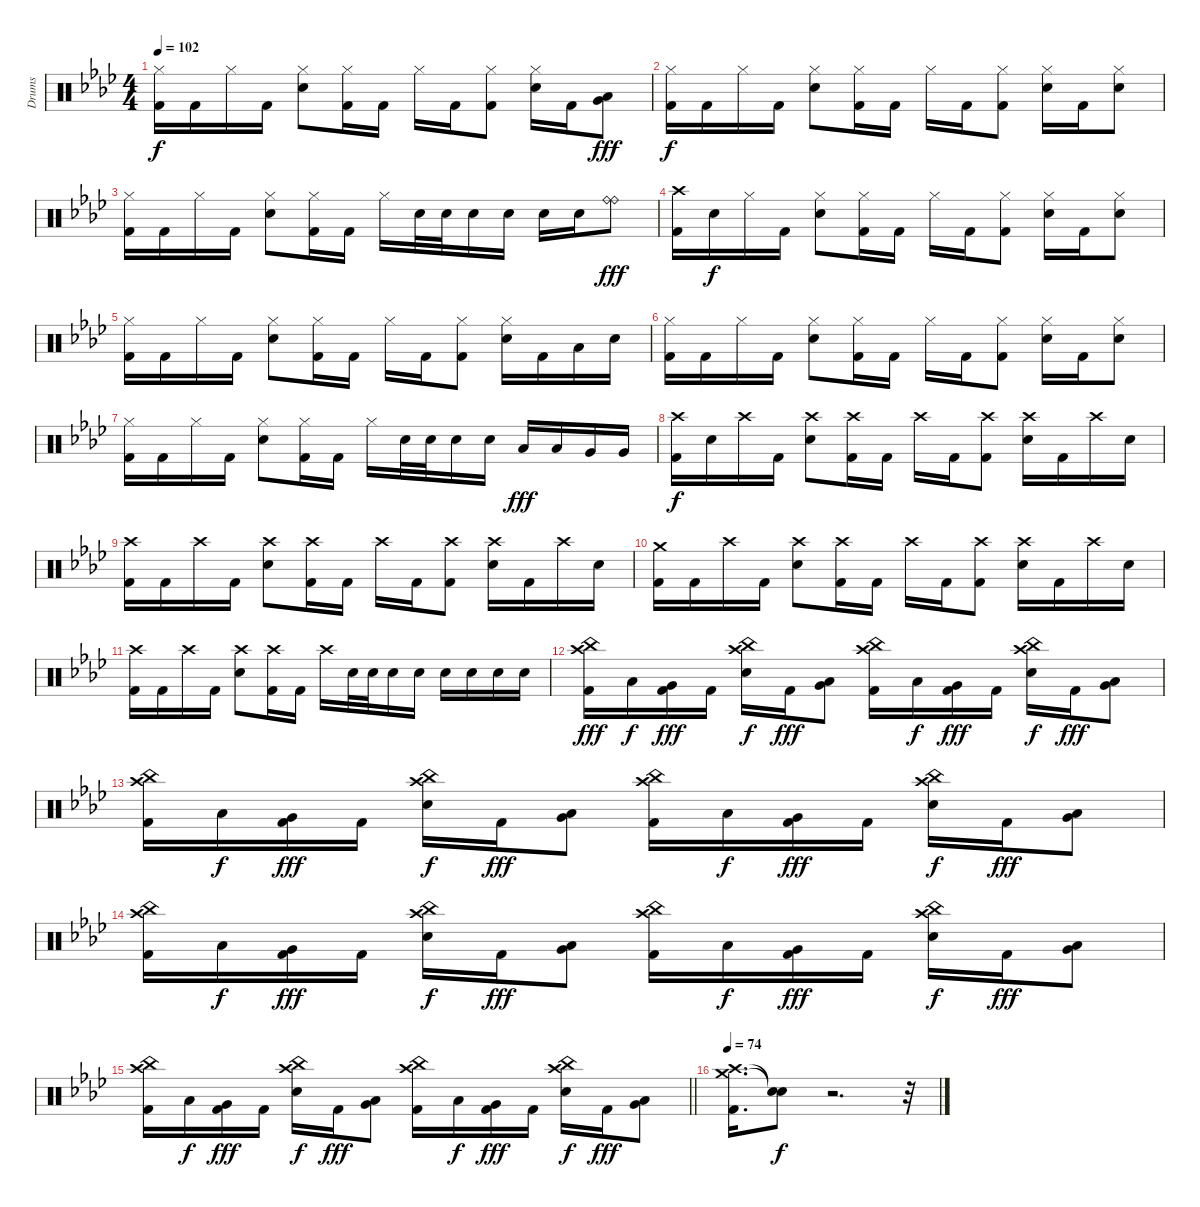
\track ("Drums" "Drums") {instrument percussion}
\staff {score}
\articulation defaults
\ts (4 4)
\tempo 102
\clef neutral
\ks fminor
("Hi-Hat (closed)" "Kick (hit) 2").16{dy f} "Kick (hit) 2".16 "Hi-Hat (closed)".16 "Kick (hit) 2".16 ("Hi-Hat (closed)" "Snare (hit) 2").8 ("Hi-Hat (closed)" "Kick (hit) 2").16 "Kick (hit) 2".16 "Hi-Hat (closed)".16 "Kick (hit) 2".16 ("Hi-Hat (closed)" "Kick (hit) 2").8 ("Hi-Hat (closed)" "Snare (hit) 2").16 "Kick (hit) 2".16 ("Low Tom (hit)" "Very Low Tom (hit)").8{dy fff} |
("Hi-Hat (closed)" "Kick (hit) 2").16{dy f} "Kick (hit) 2".16 "Hi-Hat (closed)".16 "Kick (hit) 2".16 ("Hi-Hat (closed)" "Snare (hit) 2").8 ("Hi-Hat (closed)" "Kick (hit) 2").16 "Kick (hit) 2".16 "Hi-Hat (closed)".16 "Kick (hit) 2".16 ("Hi-Hat (closed)" "Kick (hit) 2").8 ("Hi-Hat (closed)" "Snare (hit) 2").16 "Kick (hit) 2".16 ("Hi-Hat (closed)" "Snare (hit) 2").8 |
("Hi-Hat (closed)" "Kick (hit) 2").16 "Kick (hit) 2".16 "Hi-Hat (closed)".16 "Kick (hit) 2".16 ("Hi-Hat (closed)" "Snare (hit) 2").8 ("Hi-Hat (closed)" "Kick (hit) 2").16 "Kick (hit) 2".16 "Hi-Hat (closed)".16 "Snare (hit) 2".32 "Snare (hit) 2".32 "Snare (hit) 2".16 "Snare (hit) 2".16 "Snare (hit) 2".16 "Snare (hit) 2".16 ("Ride (bell)" "Ride (bell)").8{dy fff} |
("Crash high (hit)" "Kick (hit) 2").16 "Snare (hit) 2".16{dy f} "Hi-Hat (closed)".16 "Kick (hit) 2".16 ("Hi-Hat (closed)" "Snare (hit) 2").8 ("Hi-Hat (closed)" "Kick (hit) 2").16 "Kick (hit) 2".16 "Hi-Hat (closed)".16 "Kick (hit) 2".16 ("Hi-Hat (closed)" "Kick (hit) 2").8 ("Hi-Hat (closed)" "Snare (hit) 2").16 "Kick (hit) 2".16 ("Hi-Hat (closed)" "Snare (hit) 2").8 |
("Hi-Hat (closed)" "Kick (hit) 2").16 "Kick (hit) 2".16 "Hi-Hat (closed)".16 "Kick (hit) 2".16 ("Hi-Hat (closed)" "Snare (hit) 2").8 ("Hi-Hat (closed)" "Kick (hit) 2").16 "Kick (hit) 2".16 "Hi-Hat (closed)".16 "Kick (hit) 2".16 ("Hi-Hat (closed)" "Kick (hit) 2").8 ("Hi-Hat (closed)" "Snare (hit) 2").16 "Kick (hit) 2".16 "Low Tom (hit)".16 "Snare (hit) 2".16 |
("Hi-Hat (closed)" "Kick (hit) 2").16 "Kick (hit) 2".16 "Hi-Hat (closed)".16 "Kick (hit) 2".16 ("Hi-Hat (closed)" "Snare (hit) 2").8 ("Hi-Hat (closed)" "Kick (hit) 2").16 "Kick (hit) 2".16 "Hi-Hat (closed)".16 "Kick (hit) 2".16 ("Hi-Hat (closed)" "Kick (hit) 2").8 ("Hi-Hat (closed)" "Snare (hit) 2").16 "Kick (hit) 2".16 ("Hi-Hat (closed)" "Snare (hit) 2").8 |
("Hi-Hat (closed)" "Kick (hit) 2").16 "Kick (hit) 2".16 "Hi-Hat (closed)".16 "Kick (hit) 2".16 ("Hi-Hat (closed)" "Snare (hit) 2").8 ("Hi-Hat (closed)" "Kick (hit) 2").16 "Kick (hit) 2".16 "Hi-Hat (closed)".16 "Snare (hit) 2".32 "Snare (hit) 2".32 "Snare (hit) 2".16 "Snare (hit) 2".16 "Low Tom (hit)".16{dy fff} "Low Tom (hit)".16 "Very Low Tom (hit)".16 "Very Low Tom (hit)".16 |
("Crash high (hit)" "Kick (hit) 2").16{dy f} "Snare (hit) 2".16 "Crash high (hit)".16 "Kick (hit) 2".16 ("Crash high (hit)" "Snare (hit) 2").8 ("Crash high (hit)" "Kick (hit) 2").16 "Kick (hit) 2".16 "Crash high (hit)".16 "Kick (hit) 2".16 ("Crash high (hit)" "Kick (hit) 2").8 ("Crash high (hit)" "Snare (hit) 2").16 "Kick (hit) 2".16 "Crash high (hit)".16 "Snare (hit) 2".16 |
("Crash high (hit)" "Kick (hit) 2").16 "Kick (hit) 2".16 "Crash high (hit)".16 "Kick (hit) 2".16 ("Crash high (hit)" "Snare (hit) 2").8 ("Crash high (hit)" "Kick (hit) 2").16 "Kick (hit) 2".16 "Crash high (hit)".16 "Kick (hit) 2".16 ("Crash high (hit)" "Kick (hit) 2").8 ("Crash high (hit)" "Snare (hit) 2").16 "Kick (hit) 2".16 "Crash high (hit)".16 "Snare (hit) 2".16 |
("Crash medium (hit)" "Kick (hit) 2").16 "Kick (hit) 2".16 "Crash high (hit)".16 "Kick (hit) 2".16 ("Crash high (hit)" "Snare (hit) 2").8 ("Crash high (hit)" "Kick (hit) 2").16 "Kick (hit) 2".16 "Crash high (hit)".16 "Kick (hit) 2".16 ("Crash high (hit)" "Kick (hit) 2").8 ("Crash high (hit)" "Snare (hit) 2").16 "Kick (hit) 2".16 "Crash high (hit)".16 "Snare (hit) 2".16 |
("Crash high (hit)" "Kick (hit) 2").16 "Kick (hit) 2".16 "Crash high (hit)".16 "Kick (hit) 2".16 ("Crash high (hit)" "Snare (hit) 2").8 ("Crash high (hit)" "Kick (hit) 2").16 "Kick (hit) 2".16 "Crash high (hit)".16 "Snare (hit) 2".32 "Snare (hit) 2".32 "Snare (hit) 2".16 "Snare (hit) 2".16 "Snare (hit) 2".16 "Snare (hit) 2".16 "Snare (hit) 2".16 "Snare (hit) 2".16 |
("Crash high (hit)" "China (hit)" "Kick (hit) 2").16{dy fff} "Low Tom (hit)".16{dy f} ("Very Low Tom (hit)" "Kick (hit) 2").16{dy fff} "Kick (hit) 2".16 ("Crash high (hit)" "China (hit)" "Snare (hit) 2").16{dy f} "Kick (hit) 2".16{dy fff} ("Low Tom (hit)" "Very Low Tom (hit)").8 ("Crash high (hit)" "China (hit)" "Kick (hit) 2").16 "Low Tom (hit)".16{dy f} ("Very Low Tom (hit)" "Kick (hit) 2").16{dy fff} "Kick (hit) 2".16 ("Crash high (hit)" "China (hit)" "Snare (hit) 2").16{dy f} "Kick (hit) 2".16{dy fff} ("Low Tom (hit)" "Very Low Tom (hit)").8 |
("Crash high (hit)" "China (hit)" "Kick (hit) 2").16 "Low Tom (hit)".16{dy f} ("Very Low Tom (hit)" "Kick (hit) 2").16{dy fff} "Kick (hit) 2".16 ("Crash high (hit)" "China (hit)" "Snare (hit) 2").16{dy f} "Kick (hit) 2".16{dy fff} ("Low Tom (hit)" "Very Low Tom (hit)").8 ("Crash high (hit)" "China (hit)" "Kick (hit) 2").16 "Low Tom (hit)".16{dy f} ("Very Low Tom (hit)" "Kick (hit) 2").16{dy fff} "Kick (hit) 2".16 ("Crash high (hit)" "China (hit)" "Snare (hit) 2").16{dy f} "Kick (hit) 2".16{dy fff} ("Low Tom (hit)" "Very Low Tom (hit)").8 |
("Crash high (hit)" "China (hit)" "Kick (hit) 2").16 "Low Tom (hit)".16{dy f} ("Very Low Tom (hit)" "Kick (hit) 2").16{dy fff} "Kick (hit) 2".16 ("Crash high (hit)" "China (hit)" "Snare (hit) 2").16{dy f} "Kick (hit) 2".16{dy fff} ("Low Tom (hit)" "Very Low Tom (hit)").8 ("Crash high (hit)" "China (hit)" "Kick (hit) 2").16 "Low Tom (hit)".16{dy f} ("Very Low Tom (hit)" "Kick (hit) 2").16{dy fff} "Kick (hit) 2".16 ("Crash high (hit)" "China (hit)" "Snare (hit) 2").16{dy f} "Kick (hit) 2".16{dy fff} ("Low Tom (hit)" "Very Low Tom (hit)").8 |
\barLineRight lightlight
("Crash high (hit)" "China (hit)" "Kick (hit) 2").16 "Low Tom (hit)".16{dy f} ("Very Low Tom (hit)" "Kick (hit) 2").16{dy fff} "Kick (hit) 2".16 ("Crash high (hit)" "China (hit)" "Snare (hit) 2").16{dy f} "Kick (hit) 2".16{dy fff} ("Low Tom (hit)" "Very Low Tom (hit)").8 ("Crash high (hit)" "China (hit)" "Kick (hit) 2").16 "Low Tom (hit)".16{dy f} ("Very Low Tom (hit)" "Kick (hit) 2").16{dy fff} "Kick (hit) 2".16 ("Crash high (hit)" "China (hit)" "Snare (hit) 2").16{dy f} "Kick (hit) 2".16{dy fff} ("Low Tom (hit)" "Very Low Tom (hit)").8 |
\tempo 74
("Crash high (hit)" "Crash medium (hit)" "Kick (hit) 2").16{d} ("Snare (hit)"{t} "Snare (hit)"{t}).8{dy f volume 0} r.2{d} r.32{volume 16}
